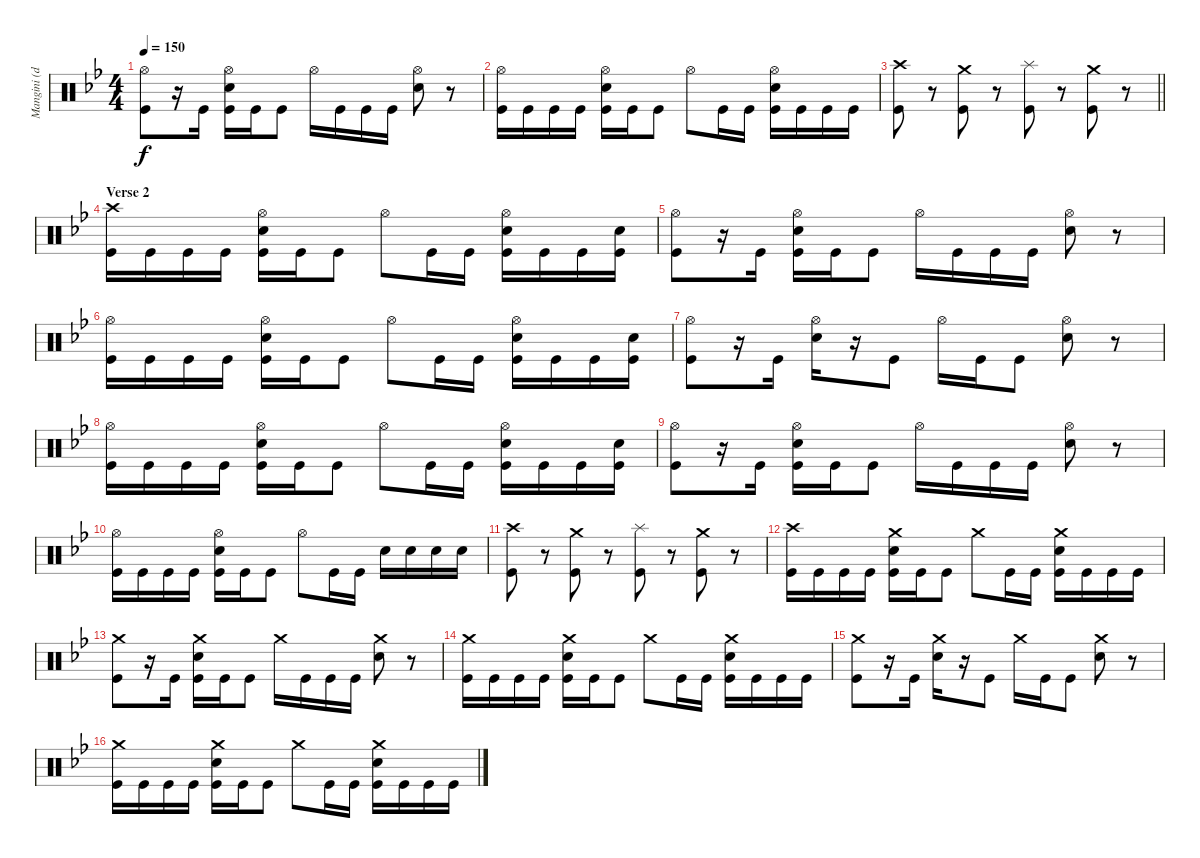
\track ("Mangini (drums)" "Mangini (d") {instrument percussion}
\staff {score}
\articulation defaults
\ts (4 4)
\tempo 150
\clef neutral
\ks gminor
("Hi-Hat (open)" "Kick (hit)").8{dy f} r.16 "Kick (hit)".16 ("Hi-Hat (open)" "Snare (hit) 2" "Kick (hit)").16 "Kick (hit)".16 "Kick (hit)".8 "Hi-Hat (open)".16 "Kick (hit)".16 "Kick (hit)".16 "Kick (hit)".16 ("Hi-Hat (open)" "Snare (hit) 2").8 r.8 |
("Hi-Hat (open)" "Kick (hit)").16 "Kick (hit)".16 "Kick (hit)".16 "Kick (hit)".16 ("Hi-Hat (open)" "Snare (hit) 2" "Kick (hit)").16 "Kick (hit)".16 "Kick (hit)".8 "Hi-Hat (open)".8 "Kick (hit)".16 "Kick (hit)".16 ("Hi-Hat (open)" "Snare (hit) 2" "Kick (hit)").16 "Kick (hit)".16 "Kick (hit)".16 "Kick (hit)".16 |
\barLineRight lightlight
("Crash high (hit)" "Kick (hit)").8 r.8 ("Crash medium (hit)" "Kick (hit)").8 r.8 ("Splash (hit)" "Kick (hit)").8 r.8 ("Crash medium (hit)" "Kick (hit)").8 r.8 |
\section ("" "Verse 2")
("Crash high (hit)" "Kick (hit)").16 "Kick (hit)".16 "Kick (hit)".16 "Kick (hit)".16 ("Hi-Hat (open)" "Snare (hit) 2" "Kick (hit)").16 "Kick (hit)".16 "Kick (hit)".8 "Hi-Hat (open)".8 "Kick (hit)".16 "Kick (hit)".16 ("Hi-Hat (open)" "Snare (hit) 2" "Kick (hit)").16 "Kick (hit)".16 "Kick (hit)".16 ("Snare (hit) 2" "Kick (hit)").16 |
("Hi-Hat (open)" "Kick (hit)").8 r.16 "Kick (hit)".16 ("Hi-Hat (open)" "Snare (hit) 2" "Kick (hit)").16 "Kick (hit)".16 "Kick (hit)".8 "Hi-Hat (open)".16 "Kick (hit)".16 "Kick (hit)".16 "Kick (hit)".16 ("Hi-Hat (open)" "Snare (hit) 2").8 r.8 |
("Hi-Hat (open)" "Kick (hit)").16 "Kick (hit)".16 "Kick (hit)".16 "Kick (hit)".16 ("Hi-Hat (open)" "Snare (hit) 2" "Kick (hit)").16 "Kick (hit)".16 "Kick (hit)".8 "Hi-Hat (open)".8 "Kick (hit)".16 "Kick (hit)".16 ("Hi-Hat (open)" "Snare (hit) 2" "Kick (hit)").16 "Kick (hit)".16 "Kick (hit)".16 ("Snare (hit) 2" "Kick (hit)").16 |
("Hi-Hat (open)" "Kick (hit)").8 r.16 "Kick (hit)".16 ("Hi-Hat (open)" "Snare (hit) 2").16 r.16 "Kick (hit)".8 "Hi-Hat (open)".16 "Kick (hit)".16 "Kick (hit)".8 ("Hi-Hat (open)" "Snare (hit) 2").8 r.8 |
("Hi-Hat (open)" "Kick (hit)").16 "Kick (hit)".16 "Kick (hit)".16 "Kick (hit)".16 ("Hi-Hat (open)" "Snare (hit) 2" "Kick (hit)").16 "Kick (hit)".16 "Kick (hit)".8 "Hi-Hat (open)".8 "Kick (hit)".16 "Kick (hit)".16 ("Hi-Hat (open)" "Snare (hit) 2" "Kick (hit)").16 "Kick (hit)".16 "Kick (hit)".16 ("Snare (hit) 2" "Kick (hit)").16 |
("Hi-Hat (open)" "Kick (hit)").8 r.16 "Kick (hit)".16 ("Hi-Hat (open)" "Snare (hit) 2" "Kick (hit)").16 "Kick (hit)".16 "Kick (hit)".8 "Hi-Hat (open)".16 "Kick (hit)".16 "Kick (hit)".16 "Kick (hit)".16 ("Hi-Hat (open)" "Snare (hit) 2").8 r.8 |
("Hi-Hat (open)" "Kick (hit)").16 "Kick (hit)".16 "Kick (hit)".16 "Kick (hit)".16 ("Hi-Hat (open)" "Snare (hit) 2" "Kick (hit)").16 "Kick (hit)".16 "Kick (hit)".8 "Hi-Hat (open)".8 "Kick (hit)".16 "Kick (hit)".16 "Snare (hit) 2".16 "Snare (hit) 2".16 "Snare (hit) 2".16 "Snare (hit) 2".16 |
("Crash high (hit)" "Kick (hit)").8 r.8 ("Crash medium (hit)" "Kick (hit)").8 r.8 ("Splash (hit)" "Kick (hit)").8 r.8 ("Crash medium (hit)" "Kick (hit)").8 r.8 |
("Crash high (hit)" "Kick (hit)").16 "Kick (hit)".16 "Kick (hit)".16 "Kick (hit)".16 ("Crash medium (hit)" "Snare (hit) 2" "Kick (hit)").16 "Kick (hit)".16 "Kick (hit)".8 "Crash medium (hit)".8 "Kick (hit)".16 "Kick (hit)".16 ("Crash medium (hit)" "Snare (hit) 2" "Kick (hit)").16 "Kick (hit)".16 "Kick (hit)".16 "Kick (hit)".16 |
("Crash medium (hit)" "Kick (hit)").8 r.16 "Kick (hit)".16 ("Crash medium (hit)" "Snare (hit) 2" "Kick (hit)").16 "Kick (hit)".16 "Kick (hit)".8 "Crash medium (hit)".16 "Kick (hit)".16 "Kick (hit)".16 "Kick (hit)".16 ("Crash medium (hit)" "Snare (hit) 2").8 r.8 |
("Crash medium (hit)" "Kick (hit)").16 "Kick (hit)".16 "Kick (hit)".16 "Kick (hit)".16 ("Crash medium (hit)" "Snare (hit) 2" "Kick (hit)").16 "Kick (hit)".16 "Kick (hit)".8 "Crash medium (hit)".8 "Kick (hit)".16 "Kick (hit)".16 ("Crash medium (hit)" "Snare (hit) 2" "Kick (hit)").16 "Kick (hit)".16 "Kick (hit)".16 "Kick (hit)".16 |
("Crash medium (hit)" "Kick (hit)").8 r.16 "Kick (hit)".16 ("Crash medium (hit)" "Snare (hit) 2").16 r.16 "Kick (hit)".8 "Crash medium (hit)".16 "Kick (hit)".16 "Kick (hit)".8 ("Crash medium (hit)" "Snare (hit) 2").8 r.8 |
("Crash medium (hit)" "Kick (hit)").16 "Kick (hit)".16 "Kick (hit)".16 "Kick (hit)".16 ("Crash medium (hit)" "Snare (hit) 2" "Kick (hit)").16 "Kick (hit)".16 "Kick (hit)".8 "Crash medium (hit)".8 "Kick (hit)".16 "Kick (hit)".16 ("Crash medium (hit)" "Snare (hit) 2" "Kick (hit)").16 "Kick (hit)".16 "Kick (hit)".16 "Kick (hit)".16
